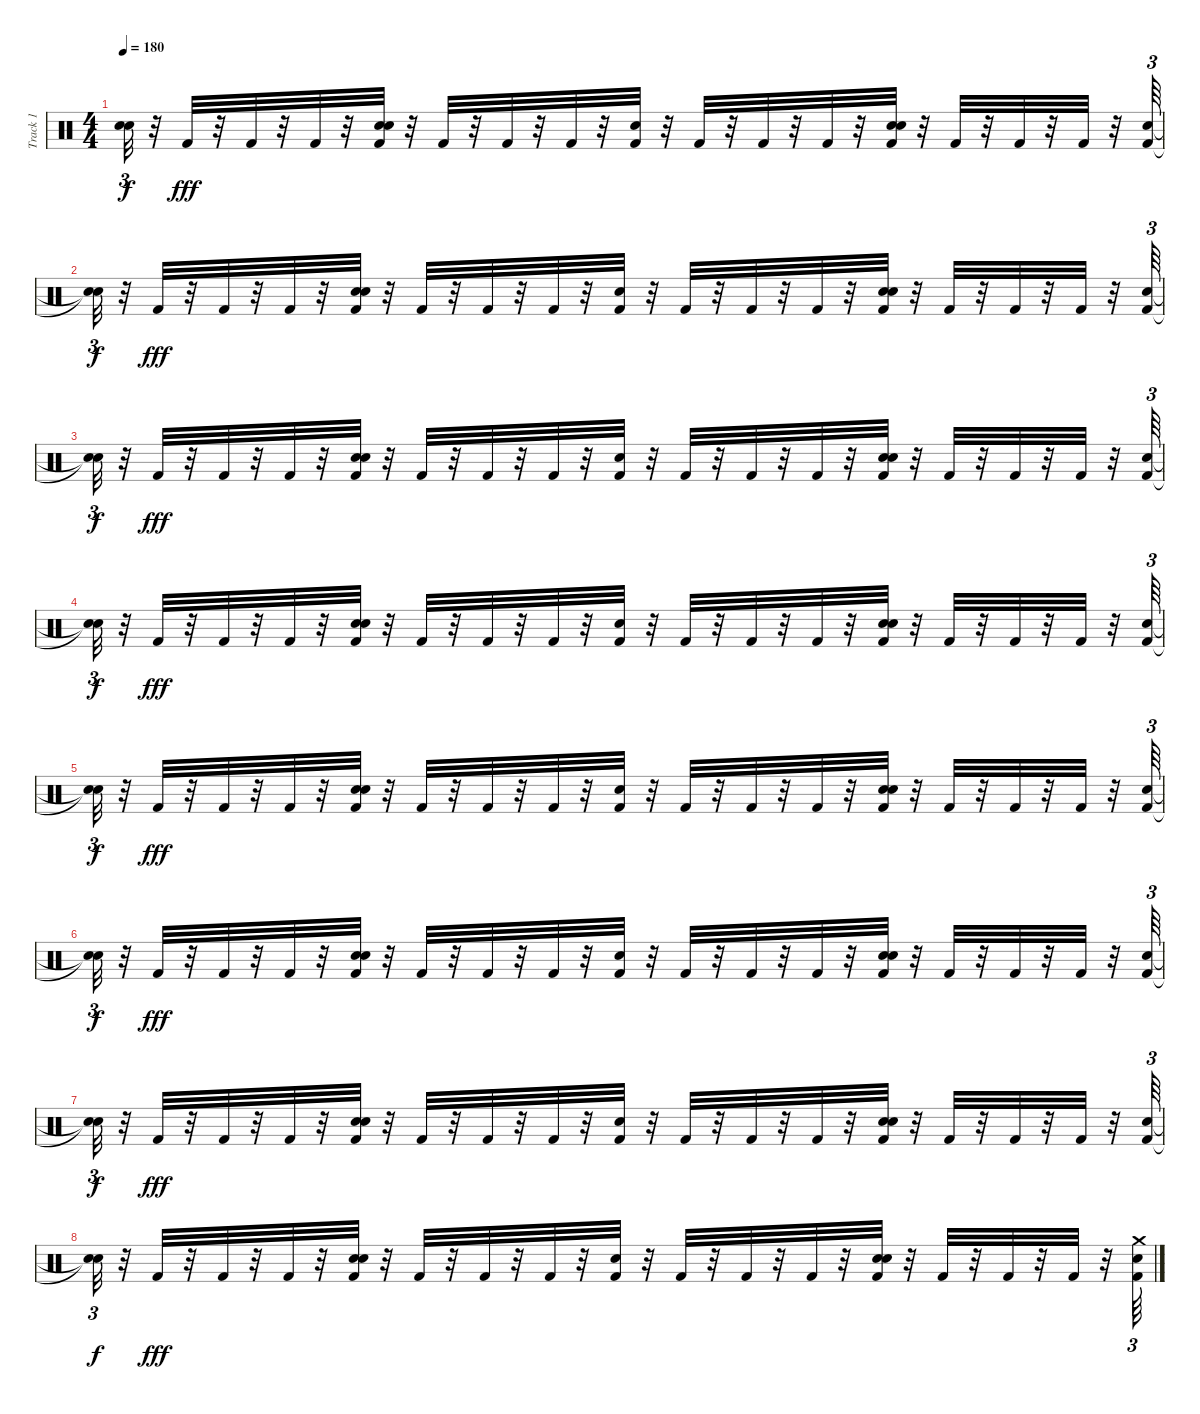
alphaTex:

\track ("Track 1" "Track 1") {mute instrument percussion}
\staff {score}
\articulation defaults
\ts (4 4)
\tempo 180
\clef neutral
\ks c
("Snare (hit)"{t} "Snare (hit)"{t}).32{tu (3 2) dy f} r.32 "Kick (hit) 2".32{dy fff} r.32 "Kick (hit) 2".32 r.32 "Kick (hit) 2".32 r.32 ("Snare (hit)" "Kick (hit) 2" "Snare (hit) 2").32 r.32 "Kick (hit) 2".32 r.32 "Kick (hit) 2".32 r.32 "Kick (hit) 2".32 r.32 ("Kick (hit) 2" "Snare (hit)").32 r.32 "Kick (hit) 2".32 r.32 "Kick (hit) 2".32 r.32 "Kick (hit) 2".32 r.32 ("Snare (hit)" "Kick (hit) 2" "Snare (hit) 2").32 r.32 "Kick (hit) 2".32 r.32 "Kick (hit) 2".32 r.32 "Kick (hit) 2".32 r.32 ("Kick (hit) 2" "Snare (hit)").64{tu (3 2)} |
("Snare (hit)"{t} "Snare (hit)"{t}).32{tu (3 2) dy f} r.32 "Kick (hit) 2".32{dy fff} r.32 "Kick (hit) 2".32 r.32 "Kick (hit) 2".32 r.32 ("Snare (hit)" "Kick (hit) 2" "Snare (hit) 2").32 r.32 "Kick (hit) 2".32 r.32 "Kick (hit) 2".32 r.32 "Kick (hit) 2".32 r.32 ("Kick (hit) 2" "Snare (hit)").32 r.32 "Kick (hit) 2".32 r.32 "Kick (hit) 2".32 r.32 "Kick (hit) 2".32 r.32 ("Snare (hit) 2" "Snare (hit)" "Kick (hit) 2").32 r.32 "Kick (hit) 2".32 r.32 "Kick (hit) 2".32 r.32 "Kick (hit) 2".32 r.32 ("Kick (hit) 2" "Snare (hit)").64{tu (3 2)} |
("Snare (hit)"{t} "Snare (hit)"{t}).32{tu (3 2) dy f} r.32 "Kick (hit) 2".32{dy fff} r.32 "Kick (hit) 2".32 r.32 "Kick (hit) 2".32 r.32 ("Snare (hit)" "Snare (hit) 2" "Kick (hit) 2").32 r.32 "Kick (hit) 2".32 r.32 "Kick (hit) 2".32 r.32 "Kick (hit) 2".32 r.32 ("Kick (hit) 2" "Snare (hit)").32 r.32 "Kick (hit) 2".32 r.32 "Kick (hit) 2".32 r.32 "Kick (hit) 2".32 r.32 ("Snare (hit) 2" "Snare (hit)" "Kick (hit) 2").32 r.32 "Kick (hit) 2".32 r.32 "Kick (hit) 2".32 r.32 "Kick (hit) 2".32 r.32 ("Kick (hit) 2" "Snare (hit)").64{tu (3 2)} |
("Snare (hit)"{t} "Snare (hit)"{t}).32{tu (3 2) dy f} r.32 "Kick (hit) 2".32{dy fff} r.32 "Kick (hit) 2".32 r.32 "Kick (hit) 2".32 r.32 ("Snare (hit)" "Kick (hit) 2" "Snare (hit) 2").32 r.32 "Kick (hit) 2".32 r.32 "Kick (hit) 2".32 r.32 "Kick (hit) 2".32 r.32 ("Kick (hit) 2" "Snare (hit)").32 r.32 "Kick (hit) 2".32 r.32 "Kick (hit) 2".32 r.32 "Kick (hit) 2".32 r.32 ("Snare (hit)" "Snare (hit) 2" "Kick (hit) 2").32 r.32 "Kick (hit) 2".32 r.32 "Kick (hit) 2".32 r.32 "Kick (hit) 2".32 r.32 ("Kick (hit) 2" "Snare (hit)").64{tu (3 2)} |
("Snare (hit)"{t} "Snare (hit)"{t}).32{tu (3 2) dy f} r.32 "Kick (hit) 2".32{dy fff} r.32 "Kick (hit) 2".32 r.32 "Kick (hit) 2".32 r.32 ("Snare (hit)" "Kick (hit) 2" "Snare (hit) 2").32 r.32 "Kick (hit) 2".32 r.32 "Kick (hit) 2".32 r.32 "Kick (hit) 2".32 r.32 ("Kick (hit) 2" "Snare (hit)").32 r.32 "Kick (hit) 2".32 r.32 "Kick (hit) 2".32 r.32 "Kick (hit) 2".32 r.32 ("Snare (hit)" "Kick (hit) 2" "Snare (hit) 2").32 r.32 "Kick (hit) 2".32 r.32 "Kick (hit) 2".32 r.32 "Kick (hit) 2".32 r.32 ("Kick (hit) 2" "Snare (hit)").64{tu (3 2)} |
("Snare (hit)"{t} "Snare (hit)"{t}).32{tu (3 2) dy f} r.32 "Kick (hit) 2".32{dy fff} r.32 "Kick (hit) 2".32 r.32 "Kick (hit) 2".32 r.32 ("Snare (hit)" "Kick (hit) 2" "Snare (hit) 2").32 r.32 "Kick (hit) 2".32 r.32 "Kick (hit) 2".32 r.32 "Kick (hit) 2".32 r.32 ("Kick (hit) 2" "Snare (hit)").32 r.32 "Kick (hit) 2".32 r.32 "Kick (hit) 2".32 r.32 "Kick (hit) 2".32 r.32 ("Snare (hit) 2" "Snare (hit)" "Kick (hit) 2").32 r.32 "Kick (hit) 2".32 r.32 "Kick (hit) 2".32 r.32 "Kick (hit) 2".32 r.32 ("Kick (hit) 2" "Snare (hit)").64{tu (3 2)} |
("Snare (hit)"{t} "Snare (hit)"{t}).32{tu (3 2) dy f} r.32 "Kick (hit) 2".32{dy fff} r.32 "Kick (hit) 2".32 r.32 "Kick (hit) 2".32 r.32 ("Snare (hit)" "Snare (hit) 2" "Kick (hit) 2").32 r.32 "Kick (hit) 2".32 r.32 "Kick (hit) 2".32 r.32 "Kick (hit) 2".32 r.32 ("Kick (hit) 2" "Snare (hit)").32 r.32 "Kick (hit) 2".32 r.32 "Kick (hit) 2".32 r.32 "Kick (hit) 2".32 r.32 ("Snare (hit) 2" "Snare (hit)" "Kick (hit) 2").32 r.32 "Kick (hit) 2".32 r.32 "Kick (hit) 2".32 r.32 "Kick (hit) 2".32 r.32 ("Kick (hit) 2" "Snare (hit)").64{tu (3 2)} |
("Snare (hit)"{t} "Snare (hit)"{t}).32{tu (3 2) dy f} r.32 "Kick (hit) 2".32{dy fff} r.32 "Kick (hit) 2".32 r.32 "Kick (hit) 2".32 r.32 ("Snare (hit)" "Kick (hit) 2" "Snare (hit) 2").32 r.32 "Kick (hit) 2".32 r.32 "Kick (hit) 2".32 r.32 "Kick (hit) 2".32 r.32 ("Kick (hit) 2" "Snare (hit)").32 r.32 "Kick (hit) 2".32 r.32 "Kick (hit) 2".32 r.32 "Kick (hit) 2".32 r.32 ("Snare (hit)" "Snare (hit) 2" "Kick (hit) 2").32 r.32 "Kick (hit) 2".32 r.32 "Kick (hit) 2".32 r.32 "Kick (hit) 2".32 r.32 ("Crash medium (hit)" "Kick (hit) 2" "Snare (hit) 2").64{tu (3 2)}
